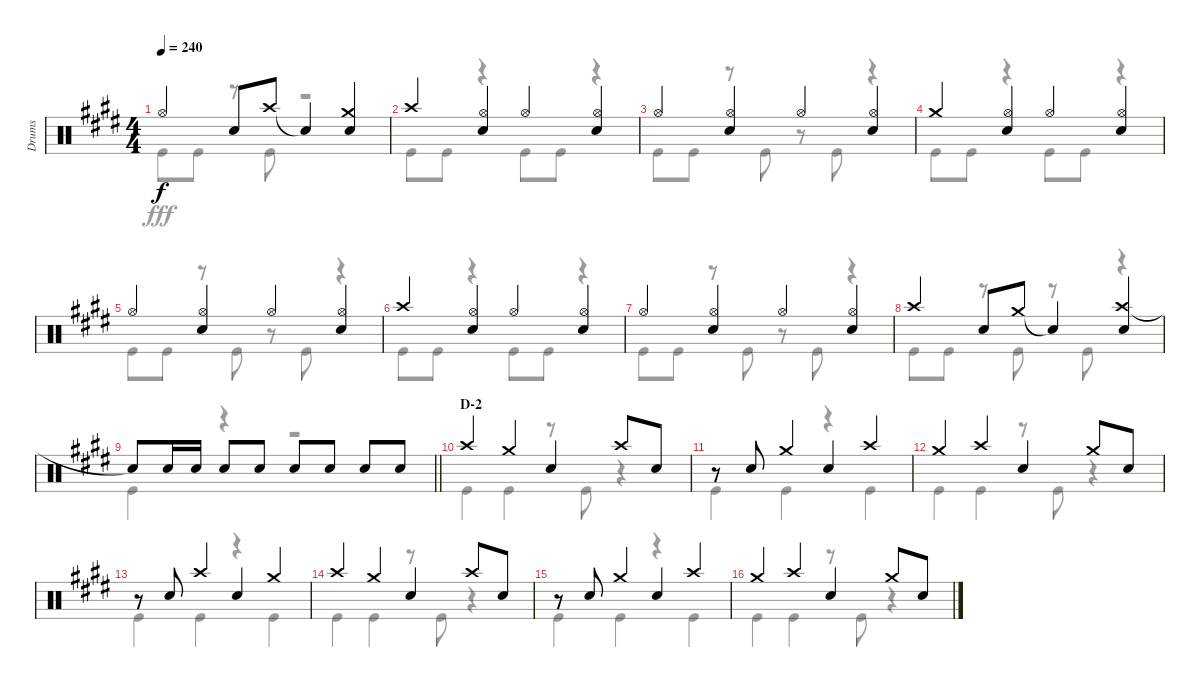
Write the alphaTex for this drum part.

\track ("Drums" "Drums") {instrument percussion}
\staff {score}
\articulation defaults
\voice
\ts (4 4)
\tempo 240
\clef neutral
\ks e "Hi-Hat (open)".4{dy f} "Snare (hit) 2".8 "Crash high (hit)".8 "Snare (hit)"{t}.4
("Crash medium (hit)" "Snare (hit) 2").4 |
"Crash high (hit)".4 ("Hi-Hat (open)" "Snare (hit) 2").4 "Hi-Hat (open)".4 ("Hi-Hat (open)" "Snare (hit) 2").4 |
"Hi-Hat (open)".4 ("Hi-Hat (open)" "Snare (hit) 2").4 "Hi-Hat (open)".4 ("Hi-Hat (open)" "Snare (hit) 2").4 |
"Crash medium (hit)".4 ("Hi-Hat (open)" "Snare (hit) 2").4 "Hi-Hat (open)".4 ("Hi-Hat (open)" "Snare (hit) 2").4 |
"Hi-Hat (open)".4 ("Hi-Hat (open)" "Snare (hit) 2").4 "Hi-Hat (open)".4 ("Hi-Hat (open)" "Snare (hit) 2").4 |
"Crash high (hit)".4 ("Hi-Hat (open)" "Snare (hit) 2").4 "Hi-Hat (open)".4 ("Hi-Hat (open)" "Snare (hit) 2").4 |
"Hi-Hat (open)".4 ("Hi-Hat (open)" "Snare (hit) 2").4 "Hi-Hat (open)".4 ("Hi-Hat (open)" "Snare (hit) 2").4 |
"Crash high (hit)".4 "Snare (hit) 2".8 "Crash medium (hit)".8 "Snare (hit)"{t}.4 ("Crash high (hit)" "Snare (hit) 2").4 |
\barLineRight lightlight "Snare (hit)"{t}.8 "Snare (hit) 2".16 "Snare (hit) 2".16 "Snare (hit) 2".8 "Snare (hit) 2".8 "Snare (hit) 2".8 "Snare (hit) 2".8 "Snare (hit) 2".8 "Snare (hit) 2".8
|
\section ("" "D-2")
"Crash high (hit)".4 "Crash medium (hit)".4 "Snare (hit) 2".4 "Crash high (hit)".8 "Snare (hit) 2".8 |
r.8 "Snare (hit) 2".8 "Crash medium (hit)".4 "Snare (hit) 2".4 "Crash high (hit)".4 |
"Crash medium (hit)".4 "Crash high (hit)".4 "Snare (hit) 2".4 "Crash medium (hit)".8 "Snare (hit) 2".8 |
r.8 "Snare (hit) 2".8 "Crash high (hit)".4 "Snare (hit) 2".4 "Crash medium (hit)".4 |
"Crash high (hit)".4 "Crash medium (hit)".4 "Snare (hit) 2".4 "Crash high (hit)".8 "Snare (hit) 2".8 |
r.8 "Snare (hit) 2".8 "Crash medium (hit)".4 "Snare (hit) 2".4 "Crash high (hit)".4 |
"Crash medium (hit)".4 "Crash high (hit)".4 "Snare (hit) 2".4 "Crash medium (hit)".8 "Snare (hit) 2".8
\voice
\clef neutral
\ottava regular
\simile none
\ks e "Kick (hit)".8{dy fff} "Kick (hit)".8
r.8 "Kick (hit)".8 r.2 |
"Kick (hit)".8 "Kick (hit)".8 r.4 "Kick (hit)".8 "Kick (hit)".8 r.4 |
"Kick (hit)".8 "Kick (hit)".8 r.8 "Kick (hit)".8 r.8 "Kick (hit)".8 r.4 |
"Kick (hit)".8 "Kick (hit)".8 r.4 "Kick (hit)".8 "Kick (hit)".8 r.4 |
"Kick (hit)".8 "Kick (hit)".8 r.8 "Kick (hit)".8 r.8 "Kick (hit)".8 r.4 |
"Kick (hit)".8 "Kick (hit)".8 r.4 "Kick (hit)".8 "Kick (hit)".8 r.4 |
"Kick (hit)".8 "Kick (hit)".8 r.8 "Kick (hit)".8 r.8 "Kick (hit)".8 r.4 |
"Kick (hit)".8 "Kick (hit)".8 r.8 "Kick (hit)".8 r.8 "Kick (hit)".8 r.4 |
\barLineRight lightlight "Kick (hit)".4
r.4 r.2 |
"Kick (hit)".4 "Kick (hit)".4 r.8 "Kick (hit)".8 r.4 |
"Kick (hit)".4 "Kick (hit)".4 r.4 "Kick (hit)".4 |
"Kick (hit)".4 "Kick (hit)".4 r.8 "Kick (hit)".8 r.4 |
"Kick (hit)".4 "Kick (hit)".4 r.4 "Kick (hit)".4 |
"Kick (hit)".4 "Kick (hit)".4 r.8 "Kick (hit)".8 r.4 |
"Kick (hit)".4 "Kick (hit)".4 r.4 "Kick (hit)".4 |
"Kick (hit)".4 "Kick (hit)".4 r.8 "Kick (hit)".8 r.4
